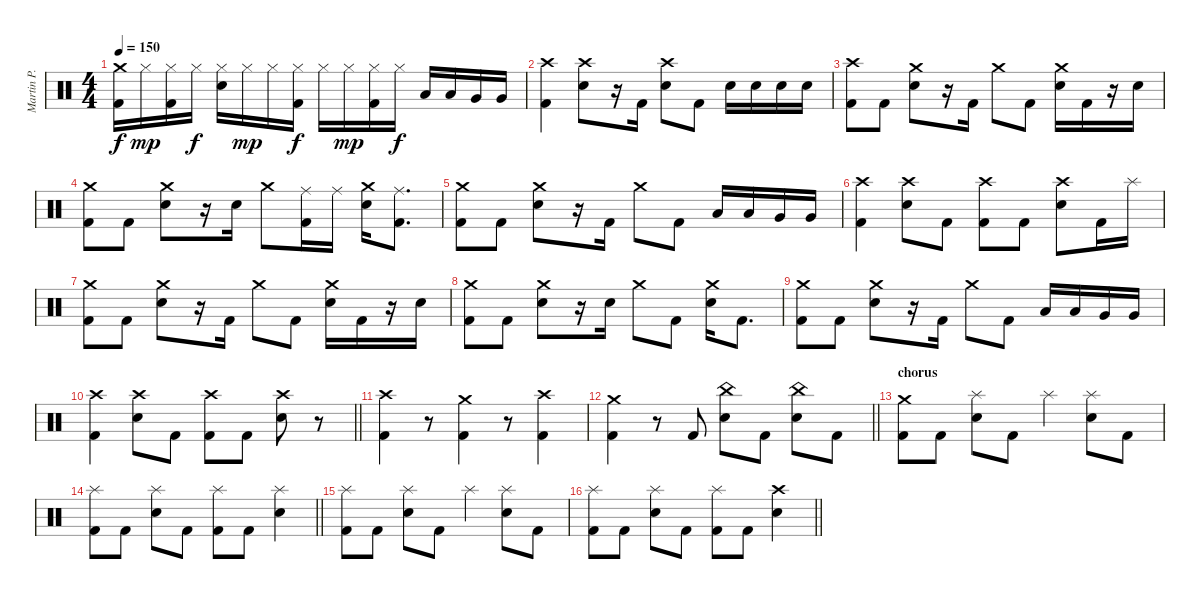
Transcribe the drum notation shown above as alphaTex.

\track ("Martin P." "Martin P.") {instrument percussion}
\staff {score}
\articulation defaults
\ts (4 4)
\tempo 150
\clef neutral
\ks c
("Crash medium (hit)" "Kick (hit) 2").16{dy f} "Hi-Hat (closed)".16{dy mp} ("Hi-Hat (closed)" "Kick (hit) 2").16 "Hi-Hat (closed)".16{dy f} ("Hi-Hat (closed)" "Electric Snare (hit)").16 "Hi-Hat (closed)".16{dy mp} "Hi-Hat (closed)".16 ("Hi-Hat (closed)" "Kick (hit) 2").16{dy f} "Hi-Hat (closed)".16 "Hi-Hat (closed)".16{dy mp} ("Hi-Hat (closed)" "Kick (hit) 2").16 "Hi-Hat (closed)".16{dy f} "Low Tom (hit)".16 "Low Tom (hit)".16 "Very Low Tom (hit)".16 "Very Low Tom (hit)".16 |
("Crash high (hit)" "Kick (hit) 2").4 ("Crash high (hit)" "Electric Snare (hit)").8 r.16 "Kick (hit) 2".16 ("Crash high (hit)" "Electric Snare (hit)").8 "Kick (hit) 2".8 "Electric Snare (hit)".16 "Electric Snare (hit)".16 "Electric Snare (hit)".16 "Electric Snare (hit)".16 |
("Crash high (hit)" "Kick (hit) 2").8 "Kick (hit) 2".8 ("Crash medium (hit)" "Electric Snare (hit)").8 r.16 "Kick (hit) 2".16 "Crash medium (hit)".8 "Kick (hit) 2".8 ("Crash medium (hit)" "Electric Snare (hit)").16 "Kick (hit) 2".16 r.16 "Electric Snare (hit)".16 |
("Crash medium (hit)" "Kick (hit) 2").8 "Kick (hit) 2".8 ("Crash medium (hit)" "Electric Snare (hit)").8 r.16 "Electric Snare (hit)".16 "Crash medium (hit)".8 ("Ride (middle)" "Kick (hit) 2").16 "Ride (middle)".16 ("Crash medium (hit)" "Electric Snare (hit)").16 ("Ride (middle)" "Kick (hit) 2").8{d} |
("Crash medium (hit)" "Kick (hit) 2").8 "Kick (hit) 2".8 ("Crash medium (hit)" "Electric Snare (hit)").8 r.16 "Kick (hit) 2".16 "Crash medium (hit)".8 "Kick (hit) 2".8 "Low Tom (hit)".16 "Low Tom (hit)".16 "Very Low Tom (hit)".16 "Very Low Tom (hit)".16 |
("Crash high (hit)" "Kick (hit) 2").4 ("Crash high (hit)" "Electric Snare (hit)").8 "Kick (hit) 2".8 ("Crash high (hit)" "Kick (hit) 2").8 "Kick (hit) 2".8 ("Crash high (hit)" "Electric Snare (hit)").8 "Kick (hit) 2".16 "Splash (hit)".16 |
("Crash medium (hit)" "Kick (hit) 2").8 "Kick (hit) 2".8 ("Crash medium (hit)" "Electric Snare (hit)").8 r.16 "Kick (hit) 2".16 "Crash medium (hit)".8 "Kick (hit) 2".8 ("Crash medium (hit)" "Electric Snare (hit)").16 "Kick (hit) 2".16 r.16 "Electric Snare (hit)".16 |
("Crash medium (hit)" "Kick (hit) 2").8 "Kick (hit) 2".8 ("Crash medium (hit)" "Electric Snare (hit)").8 r.16 "Electric Snare (hit)".16 "Crash medium (hit)".8 "Kick (hit) 2".8 ("Crash medium (hit)" "Electric Snare (hit)").16 "Kick (hit) 2".8{d} |
("Crash medium (hit)" "Kick (hit) 2").8 "Kick (hit) 2".8 ("Crash medium (hit)" "Electric Snare (hit)").8 r.16 "Kick (hit) 2".16 "Crash medium (hit)".8 "Kick (hit) 2".8 "Low Tom (hit)".16 "Low Tom (hit)".16 "Very Low Tom (hit)".16 "Very Low Tom (hit)".16 |
\barLineRight lightlight
("Crash high (hit)" "Kick (hit) 2").4 ("Crash high (hit)" "Electric Snare (hit)").8 "Kick (hit) 2".8 ("Crash high (hit)" "Kick (hit) 2").8 "Kick (hit) 2".8 ("Crash high (hit)" "Electric Snare (hit)").8 r.8 |
("Kick (hit) 2" "Crash high (hit)").4 r.8 ("Kick (hit) 2" "Crash medium (hit)").4 r.8 ("Kick (hit) 2" "Crash high (hit)").4 |
\barLineRight lightlight
("Kick (hit) 2" "Crash medium (hit)").4 r.8 "Kick (hit) 2".8 ("Electric Snare (hit)" "China (hit)").8 "Kick (hit) 2".8 ("Electric Snare (hit)" "China (hit)").8 "Kick (hit) 2".8 |
\section ("" "chorus")
("Kick (hit) 2" "Crash medium (hit)").8 "Kick (hit) 2".8 ("Electric Snare (hit)" "Splash (hit)").8 "Kick (hit) 2".8 "Splash (hit)".4 ("Electric Snare (hit)" "Splash (hit)").8 "Kick (hit) 2".8 |
\barLineRight lightlight
("Kick (hit) 2" "Splash (hit)").8 "Kick (hit) 2".8 ("Electric Snare (hit)" "Splash (hit)").8 "Kick (hit) 2".8 ("Kick (hit) 2" "Splash (hit)").8 "Kick (hit) 2".8 ("Electric Snare (hit)" "Splash (hit)").4 |
("Splash (hit)" "Kick (hit) 2").8 "Kick (hit) 2".8 ("Electric Snare (hit)" "Splash (hit)").8 "Kick (hit) 2".8 "Splash (hit)".4 ("Electric Snare (hit)" "Splash (hit)").8 "Kick (hit) 2".8 |
\barLineRight lightlight
("Kick (hit) 2" "Splash (hit)").8 "Kick (hit) 2".8 ("Electric Snare (hit)" "Splash (hit)").8 "Kick (hit) 2".8 ("Kick (hit) 2" "Splash (hit)").8 "Kick (hit) 2".8 ("Electric Snare (hit)" "Crash high (hit)").4
